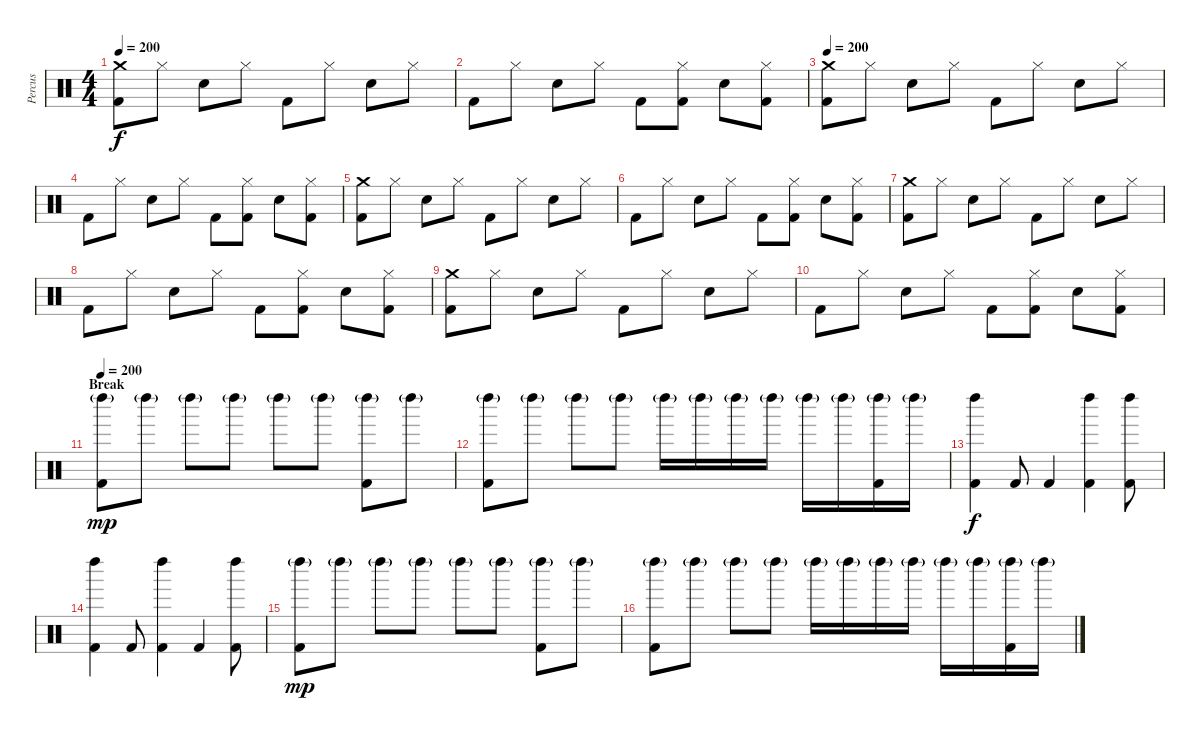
\track ("Percus" "Percus") {instrument percussion}
\staff {score}
\articulation defaults
\ts (4 4)
\tempo 200
\clef neutral
\ks c
("Crash medium (hit)" "Kick (hit) 2").8{dy f} "Hi-Hat (closed)".8 "Snare (hit) 2".8 "Hi-Hat (closed)".8 "Kick (hit) 2".8 "Hi-Hat (closed)".8 "Snare (hit) 2".8 "Hi-Hat (closed)".8 |
"Kick (hit) 2".8 "Hi-Hat (closed)".8 "Snare (hit) 2".8 "Hi-Hat (closed)".8 "Kick (hit) 2".8 ("Hi-Hat (closed)" "Kick (hit) 2").8 "Snare (hit) 2".8 ("Hi-Hat (closed)" "Kick (hit) 2").8 |
\tempo 200
("Crash medium (hit)" "Kick (hit) 2").8 "Hi-Hat (closed)".8 "Snare (hit) 2".8 "Hi-Hat (closed)".8 "Kick (hit) 2".8 "Hi-Hat (closed)".8 "Snare (hit) 2".8 "Hi-Hat (closed)".8 |
"Kick (hit) 2".8 "Hi-Hat (closed)".8 "Snare (hit) 2".8 "Hi-Hat (closed)".8 "Kick (hit) 2".8 ("Hi-Hat (closed)" "Kick (hit) 2").8 "Snare (hit) 2".8 ("Hi-Hat (closed)" "Kick (hit) 2").8 |
("Crash medium (hit)" "Kick (hit) 2").8 "Hi-Hat (closed)".8 "Snare (hit) 2".8 "Hi-Hat (closed)".8 "Kick (hit) 2".8 "Hi-Hat (closed)".8 "Snare (hit) 2".8 "Hi-Hat (closed)".8 |
"Kick (hit) 2".8 "Hi-Hat (closed)".8 "Snare (hit) 2".8 "Hi-Hat (closed)".8 "Kick (hit) 2".8 ("Hi-Hat (closed)" "Kick (hit) 2").8 "Snare (hit) 2".8 ("Hi-Hat (closed)" "Kick (hit) 2").8 |
("Crash medium (hit)" "Kick (hit) 2").8 "Hi-Hat (closed)".8 "Snare (hit) 2".8 "Hi-Hat (closed)".8 "Kick (hit) 2".8 "Hi-Hat (closed)".8 "Snare (hit) 2".8 "Hi-Hat (closed)".8 |
"Kick (hit) 2".8 "Hi-Hat (closed)".8 "Snare (hit) 2".8 "Hi-Hat (closed)".8 "Kick (hit) 2".8 ("Hi-Hat (closed)" "Kick (hit) 2").8 "Snare (hit) 2".8 ("Hi-Hat (closed)" "Kick (hit) 2").8 |
("Crash medium (hit)" "Kick (hit) 2").8 "Hi-Hat (closed)".8 "Snare (hit) 2".8 "Hi-Hat (closed)".8 "Kick (hit) 2".8 "Hi-Hat (closed)".8 "Snare (hit) 2".8 "Hi-Hat (closed)".8 |
"Kick (hit) 2".8 "Hi-Hat (closed)".8 "Snare (hit) 2".8 "Hi-Hat (closed)".8 "Kick (hit) 2".8 ("Hi-Hat (closed)" "Kick (hit) 2").8 "Snare (hit) 2".8 ("Hi-Hat (closed)" "Kick (hit) 2").8 |
\section ("" "Break")
\tempo 200
("Left Maraca (hit)"{g} "Kick (hit) 2").8{dy mp} "Left Maraca (hit)"{g}.8 "Left Maraca (hit)"{g}.8 "Left Maraca (hit)"{g}.8 "Left Maraca (hit)"{g}.8 "Left Maraca (hit)"{g}.8 ("Left Maraca (hit)"{g} "Kick (hit) 2").8 "Left Maraca (hit)"{g}.8 |
("Left Maraca (hit)"{g} "Kick (hit) 2").8 "Left Maraca (hit)"{g}.8 "Left Maraca (hit)"{g}.8 "Left Maraca (hit)"{g}.8 "Left Maraca (hit)"{g}.16 "Left Maraca (hit)"{g}.16 "Left Maraca (hit)"{g}.16 "Left Maraca (hit)"{g}.16 "Left Maraca (hit)"{g}.16 "Left Maraca (hit)"{g}.16 ("Left Maraca (hit)"{g} "Kick (hit) 2").16 "Left Maraca (hit)"{g}.16 |
("Left Maraca (hit)" "Kick (hit) 2").4{dy f} "Kick (hit) 2".8 "Kick (hit) 2".4 ("Left Maraca (hit)" "Kick (hit) 2").4 ("Left Maraca (hit)" "Kick (hit) 2").8 |
("Left Maraca (hit)" "Kick (hit) 2").4 "Kick (hit) 2".8 ("Left Maraca (hit)" "Kick (hit) 2").4 "Kick (hit) 2".4 ("Left Maraca (hit)" "Kick (hit) 2").8 |
("Left Maraca (hit)"{g} "Kick (hit) 2").8{dy mp} "Left Maraca (hit)"{g}.8 "Left Maraca (hit)"{g}.8 "Left Maraca (hit)"{g}.8 "Left Maraca (hit)"{g}.8 "Left Maraca (hit)"{g}.8 ("Left Maraca (hit)"{g} "Kick (hit) 2").8 "Left Maraca (hit)"{g}.8 |
("Left Maraca (hit)"{g} "Kick (hit) 2").8 "Left Maraca (hit)"{g}.8 "Left Maraca (hit)"{g}.8 "Left Maraca (hit)"{g}.8 "Left Maraca (hit)"{g}.16 "Left Maraca (hit)"{g}.16 "Left Maraca (hit)"{g}.16 "Left Maraca (hit)"{g}.16 "Left Maraca (hit)"{g}.16 "Left Maraca (hit)"{g}.16 ("Left Maraca (hit)"{g} "Kick (hit) 2").16 "Left Maraca (hit)"{g}.16
